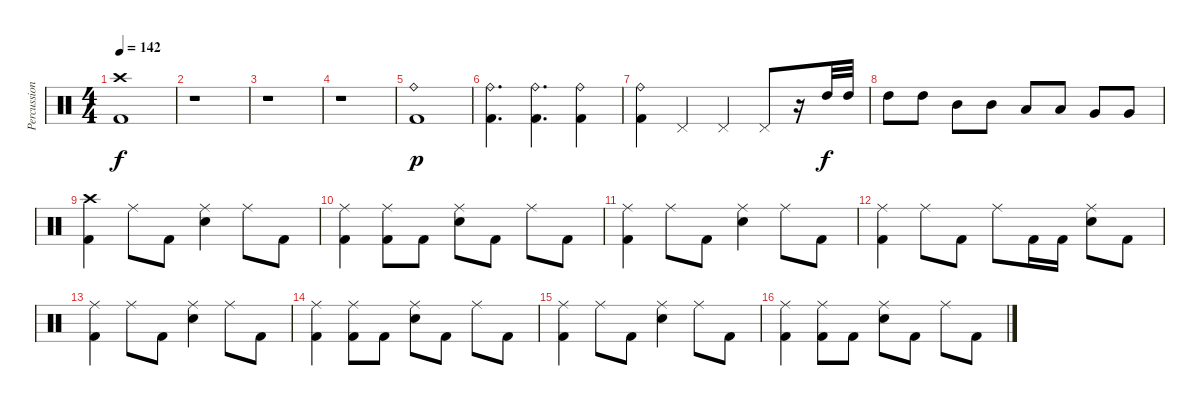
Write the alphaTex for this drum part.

\track ("Percussion" "Percussion") {solo instrument percussion}
\staff {score}
\articulation defaults
\ts (4 4)
\tempo 142
\clef neutral
\ks c
("Crash high (hit)" "Kick (hit) 2").1{dy f} |
r.1 |
r.1 |
r.1 |
("Ride (bell)" "Kick (hit) 2").1{dy p} |
("Ride (bell)" "Kick (hit) 2").4{d} ("Ride (bell)" "Kick (hit) 2").4{d} ("Ride (bell)" "Kick (hit) 2").4 |
("Ride (bell)" "Kick (hit) 2").4 "Pedal Hi-Hat (hit)".4 "Pedal Hi-Hat (hit)".4 "Pedal Hi-Hat (hit)".8 r.16 "High Tom (hit)".32{dy f} "High Tom (hit)".32 |
"High Tom (hit)".8 "High Tom (hit)".8 "Mid Tom (hit)".8 "Mid Tom (hit)".8 "Low Tom (hit)".8 "Low Tom (hit)".8 "Very Low Tom (hit)".8 "Very Low Tom (hit)".8 |
("Crash high (hit)" "Kick (hit) 2").4 "Ride (middle)".8 "Kick (hit) 2".8 ("Ride (middle)" "Snare (hit) 2").4 "Ride (middle)".8 "Kick (hit) 2".8 |
("Ride (middle)" "Kick (hit) 2").4 ("Ride (middle)" "Kick (hit) 2").8 "Kick (hit) 2".8 ("Ride (middle)" "Snare (hit) 2").8 "Kick (hit) 2".8 "Ride (middle)".8 "Kick (hit) 2".8 |
("Ride (middle)" "Kick (hit) 2").4 "Ride (middle)".8 "Kick (hit) 2".8 ("Ride (middle)" "Snare (hit) 2").4 "Ride (middle)".8 "Kick (hit) 2".8 |
("Ride (middle)" "Kick (hit) 2").4 "Ride (middle)".8 "Kick (hit) 2".8 "Ride (middle)".8 "Kick (hit) 2".16 "Kick (hit) 2".16 ("Ride (middle)" "Snare (hit) 2").8 "Kick (hit) 2".8 |
("Ride (middle)" "Kick (hit) 2").4 "Ride (middle)".8 "Kick (hit) 2".8 ("Ride (middle)" "Snare (hit) 2").4 "Ride (middle)".8 "Kick (hit) 2".8 |
("Ride (middle)" "Kick (hit) 2").4 ("Ride (middle)" "Kick (hit) 2").8 "Kick (hit) 2".8 ("Ride (middle)" "Snare (hit) 2").8 "Kick (hit) 2".8 "Ride (middle)".8 "Kick (hit) 2".8 |
("Ride (middle)" "Kick (hit) 2").4 "Ride (middle)".8 "Kick (hit) 2".8 ("Ride (middle)" "Snare (hit) 2").4 "Ride (middle)".8 "Kick (hit) 2".8 |
("Ride (middle)" "Kick (hit) 2").4 ("Ride (middle)" "Kick (hit) 2").8 "Kick (hit) 2".8 ("Ride (middle)" "Snare (hit) 2").8 "Kick (hit) 2".8 "Ride (middle)".8 "Kick (hit) 2".8
